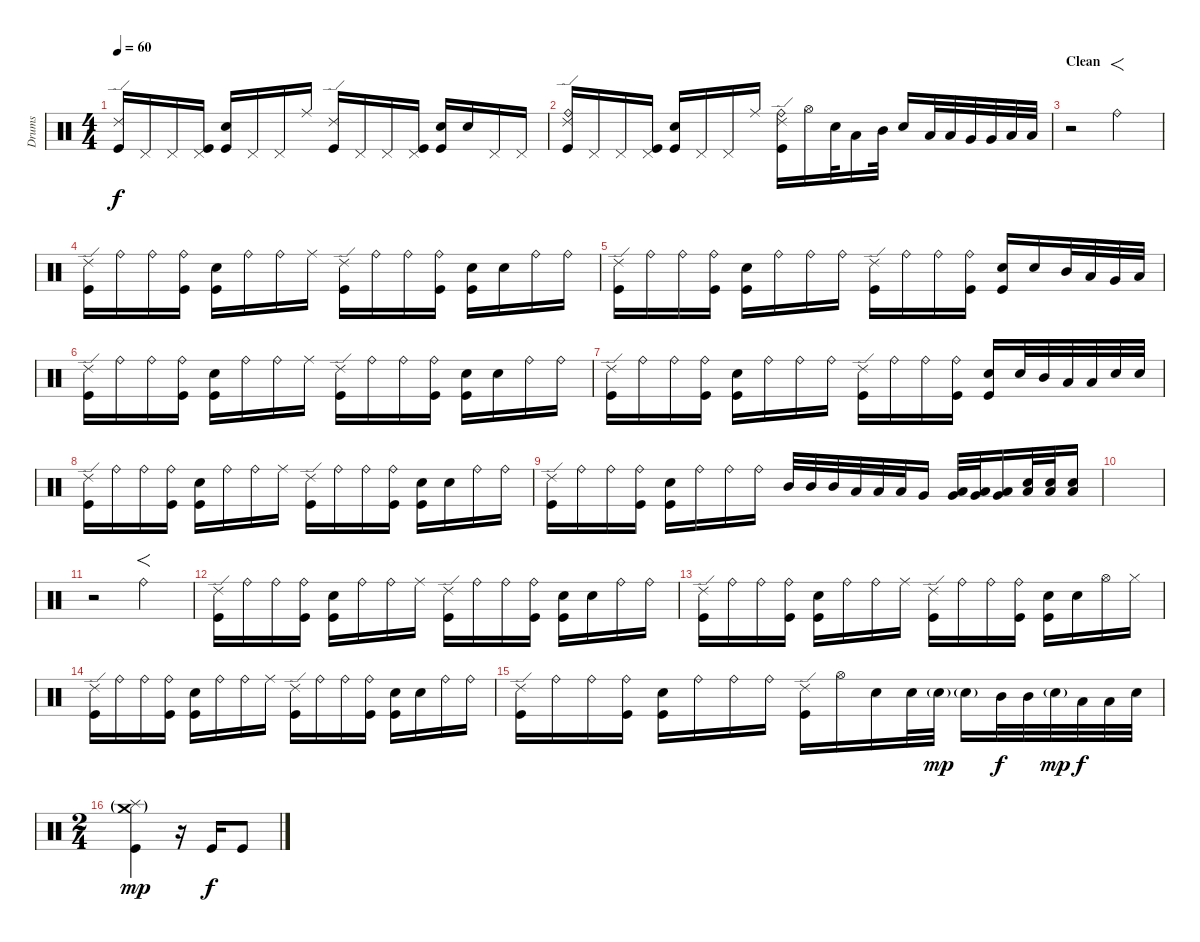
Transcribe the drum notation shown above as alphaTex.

\track ("Drums" "Drums") {instrument percussion}
\staff {score}
\articulation defaults
\ts (4 4)
\tempo 60
\clef neutral
\ks c
("Ride (edge) 2" "Kick (hit)").16{dy f} "Pedal Hi-Hat (hit)".16 "Pedal Hi-Hat (hit)".16 ("Pedal Hi-Hat (hit)" "Kick (hit)").16 ("Electric Snare (hit)" "Kick (hit)").16 "Pedal Hi-Hat (hit)".16 "Pedal Hi-Hat (hit)".16 "Ride (middle)".16 ("Ride (edge) 2" "Kick (hit)").16 "Pedal Hi-Hat (hit)".16 "Pedal Hi-Hat (hit)".16 ("Pedal Hi-Hat (hit)" "Kick (hit)").16 ("Electric Snare (hit)" "Kick (hit)").16 "Electric Snare (hit)".16 "Pedal Hi-Hat (hit)".16 "Pedal Hi-Hat (hit)".16 |
("Ride (bell)" "Ride (edge) 2" "Kick (hit)").16 "Pedal Hi-Hat (hit)".16 "Pedal Hi-Hat (hit)".16 ("Pedal Hi-Hat (hit)" "Kick (hit)").16 ("Electric Snare (hit)" "Kick (hit)").16 "Pedal Hi-Hat (hit)".16 "Pedal Hi-Hat (hit)".16 "Ride (middle)".16 ("Ride (bell)" "Ride (edge) 2" "Kick (hit)").16 "Hi-Hat (open)".16 "Electric Snare (hit)".32 "Low Tom (hit)".16 "Mid Tom (hit)".32 "Electric Snare (hit)".16 "Low Tom (hit)".32 "Low Tom (hit)".32 "Very Low Tom (hit)".32 "Very Low Tom (hit)".32 "Low Floor Tom (hit)".32 "Low Floor Tom (hit)".32 |
\section ("" "Clean")
r.2 "Ride (bell)"{tr (51 64)}.2{f} |
("Ride (edge) 2" "Kick (hit)").16 "Ride (bell)".16 "Ride (bell)".16 ("Ride (bell)" "Kick (hit)").16 ("Electric Snare (hit)" "Kick (hit)").16 "Ride (bell)".16 "Ride (bell)".16 "Ride (middle)".16 ("Ride (edge) 2" "Kick (hit)").16 "Ride (bell)".16 "Ride (bell)".16 ("Ride (bell)" "Kick (hit)").16 ("Electric Snare (hit)" "Kick (hit)").16 "Electric Snare (hit)".16 "Ride (bell)".16 "Ride (bell)".16 |
("Ride (edge) 2" "Kick (hit)").16 "Ride (bell)".16 "Ride (bell)".16 ("Ride (bell)" "Kick (hit)").16 ("Electric Snare (hit)" "Kick (hit)").16 "Ride (bell)".16 "Ride (bell)".16 "Ride (bell)".16 ("Ride (edge) 2" "Kick (hit)").16 "Ride (bell)".16 "Ride (bell)".16 ("Ride (bell)" "Kick (hit)").16 ("Electric Snare (hit)" "Kick (hit)").16 "Electric Snare (hit)".16 "Mid Tom (hit)".32 "Low Tom (hit)".32 "Very Low Tom (hit)".32 "Low Floor Tom (hit)".32 |
("Ride (edge) 2" "Kick (hit)").16 "Ride (bell)".16 "Ride (bell)".16 ("Ride (bell)" "Kick (hit)").16 ("Electric Snare (hit)" "Kick (hit)").16 "Ride (bell)".16 "Ride (bell)".16 "Ride (middle)".16 ("Ride (edge) 2" "Kick (hit)").16 "Ride (bell)".16 "Ride (bell)".16 ("Ride (bell)" "Kick (hit)").16 ("Electric Snare (hit)" "Kick (hit)").16 "Electric Snare (hit)".16 "Ride (bell)".16 "Ride (bell)".16 |
("Ride (edge) 2" "Kick (hit)").16 "Ride (bell)".16 "Ride (bell)".16 ("Ride (bell)" "Kick (hit)").16 ("Electric Snare (hit)" "Kick (hit)").16 "Ride (bell)".16 "Ride (bell)".16 "Ride (bell)".16 ("Ride (edge) 2" "Kick (hit)").16 "Ride (bell)".16 "Ride (bell)".16 ("Ride (bell)" "Kick (hit)").16 ("Electric Snare (hit)" "Kick (hit)").16 "Electric Snare (hit)".32 "Mid Tom (hit)".32 "Low Tom (hit)".32 "Low Tom (hit)".32 "Snare (hit) 2".32 "Snare (hit) 2".32 |
("Ride (edge) 2" "Kick (hit)").16 "Ride (bell)".16 "Ride (bell)".16 ("Ride (bell)" "Kick (hit)").16 ("Electric Snare (hit)" "Kick (hit)").16 "Ride (bell)".16 "Ride (bell)".16 "Ride (middle)".16 ("Ride (edge) 2" "Kick (hit)").16 "Ride (bell)".16 "Ride (bell)".16 ("Ride (bell)" "Kick (hit)").16 ("Electric Snare (hit)" "Kick (hit)").16 "Electric Snare (hit)".16 "Ride (bell)".16 "Ride (bell)".16 |
("Ride (edge) 2" "Kick (hit)").16 "Ride (bell)".16 "Ride (bell)".16 ("Ride (bell)" "Kick (hit)").16 ("Electric Snare (hit)" "Kick (hit)").16 "Ride (bell)".16 "Ride (bell)".16 "Ride (bell)".16 "Mid Tom (hit)".32 "Mid Tom (hit)".32 "Mid Tom (hit)".32 "Low Tom (hit)".32 "Low Tom (hit)".32 "Low Tom (hit)".32 "Very Low Tom (hit)".16 ("Low Floor Tom (hit)" "Very Low Tom (hit)").32 ("Low Floor Tom (hit)" "Very Low Tom (hit)").32 ("Low Floor Tom (hit)" "Very Low Tom (hit)").16 ("Electric Snare (hit)" "Low Floor Tom (hit)").32 ("Electric Snare (hit)" "Low Floor Tom (hit)").32 ("Electric Snare (hit)" "Low Floor Tom (hit)").16 |
|
r.2 "Ride (bell)"{tr (51 64)}.2{f} |
("Ride (edge) 2" "Kick (hit)").16 "Ride (bell)".16 "Ride (bell)".16 ("Ride (bell)" "Kick (hit)").16 ("Electric Snare (hit)" "Kick (hit)").16 "Ride (bell)".16 "Ride (bell)".16 "Ride (middle)".16 ("Ride (edge) 2" "Kick (hit)").16 "Ride (bell)".16 "Ride (bell)".16 ("Ride (bell)" "Kick (hit)").16 ("Electric Snare (hit)" "Kick (hit)").16 "Electric Snare (hit)".16 "Ride (bell)".16 "Ride (bell)".16 |
("Ride (edge) 2" "Kick (hit)").16 "Ride (bell)".16 "Ride (bell)".16 ("Ride (bell)" "Kick (hit)").16 ("Electric Snare (hit)" "Kick (hit)").16 "Ride (bell)".16 "Ride (bell)".16 "Ride (middle)".16 ("Ride (edge) 2" "Kick (hit)").16 "Ride (bell)".16 "Ride (bell)".16 ("Ride (bell)" "Kick (hit)").16 ("Electric Snare (hit)" "Kick (hit)").16 "Electric Snare (hit)".16 "Hi-Hat (open)".16 "Hi-Hat (closed)".16 |
("Ride (edge) 2" "Kick (hit)").16 "Ride (bell)".16 "Ride (bell)".16 ("Ride (bell)" "Kick (hit)").16 ("Electric Snare (hit)" "Kick (hit)").16 "Ride (bell)".16 "Ride (bell)".16 "Ride (middle)".16 ("Ride (edge) 2" "Kick (hit)").16 "Ride (bell)".16 "Ride (bell)".16 ("Ride (bell)" "Kick (hit)").16 ("Electric Snare (hit)" "Kick (hit)").16 "Electric Snare (hit)".16 "Ride (bell)".16 "Ride (bell)".16 |
("Ride (edge) 2" "Kick (hit)").16 "Ride (bell)".16 "Ride (bell)".16 ("Ride (bell)" "Kick (hit)").16 ("Electric Snare (hit)" "Kick (hit)").16 "Ride (bell)".16 "Ride (bell)".16 "Ride (bell)".16 ("Ride (edge) 2" "Kick (hit)").16 "Hi-Hat (open)".16 "Electric Snare (hit)".16 "Electric Snare (hit)".32 "Electric Snare (hit)"{g}.32{dy mp} "Electric Snare (hit)"{g}.16 "Mid Tom (hit)".32{dy f} "Mid Tom (hit)".32 "Electric Snare (hit)"{g}.32{dy mp} "Low Tom (hit)".32{dy f} "Low Tom (hit)".32 "Electric Snare (hit)".32 |
\ts (2 4)
("Splash (hit)"{g} "Crash medium (hit)"{g} "Kick (hit)").4{dy mp} r.16 "Kick (hit)".16{dy f} "Kick (hit)".8
